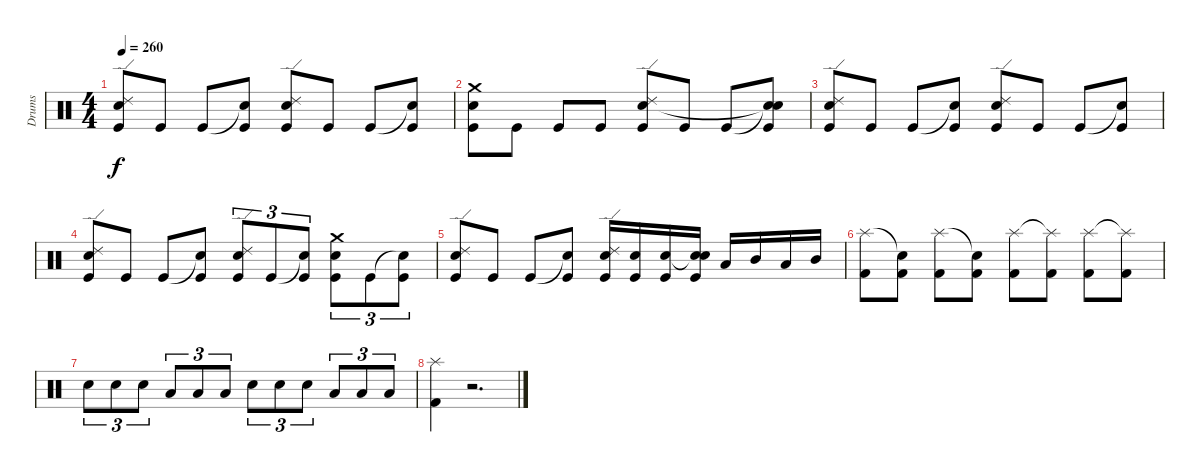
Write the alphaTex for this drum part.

\track ("Drums" "Drums") {instrument percussion}
\staff {score}
\articulation defaults
\ts (4 4)
\tempo 260
\clef neutral
\ks c
("Ride (edge) 2" "Electric Snare (hit)" "Kick (hit)").8{dy f} "Kick (hit)".8 "Kick (hit)".8 ("Snare (hit)"{t} "Kick (hit)").8 ("Ride (edge) 2" "Electric Snare (hit)" "Kick (hit)").8 "Kick (hit)".8 "Kick (hit)".8 ("Snare (hit)"{t} "Kick (hit)").8 |
("Crash medium (hit)" "Electric Snare (hit)" "Kick (hit)").8 "Kick (hit)".8 "Kick (hit)".8 "Kick (hit)".8 ("Ride (edge) 2" "Electric Snare (hit)" "Kick (hit)").8 "Kick (hit)".8 "Kick (hit)".8 ("Snare (hit)"{t} "Snare (hit)"{t} "Kick (hit)").8 |
("Ride (edge) 2" "Electric Snare (hit)" "Kick (hit)").8 "Kick (hit)".8 "Kick (hit)".8 ("Snare (hit)"{t} "Kick (hit)").8 ("Ride (edge) 2" "Electric Snare (hit)" "Kick (hit)").8 "Kick (hit)".8 "Kick (hit)".8 ("Snare (hit)"{t} "Kick (hit)").8 |
("Ride (edge) 2" "Electric Snare (hit)" "Kick (hit)").8 "Kick (hit)".8 "Kick (hit)".8 ("Snare (hit)"{t} "Kick (hit)").8 ("Ride (edge) 2" "Electric Snare (hit)" "Kick (hit)").8{tu (3 2)} "Kick (hit)".8{tu (3 2)} ("Snare (hit)"{t} "Kick (hit)").8{tu (3 2)} ("Crash medium (hit)" "Electric Snare (hit)" "Kick (hit)").8{tu (3 2)} "Kick (hit)".8{tu (3 2)} ("Snare (hit)"{t} "Kick (hit)").8{tu (3 2)} |
("Ride (edge) 2" "Electric Snare (hit)" "Kick (hit)").8 "Kick (hit)".8 "Kick (hit)".8 ("Snare (hit)"{t} "Kick (hit)").8 ("Ride (edge) 2" "Electric Snare (hit)" "Kick (hit)").16 ("Electric Snare (hit)" "Kick (hit)").16 ("Electric Snare (hit)" "Kick (hit)").16 ("Snare (hit)"{t} "Electric Snare (hit)" "Kick (hit)").16 "Low Tom (hit)".16 "Mid Tom (hit)".16 "Low Tom (hit)".16 "Mid Tom (hit)".16 |
("Splash (hit)" "Kick (hit) 2").8 ("Snare (hit)"{t} "Kick (hit) 2").8 ("Splash (hit)" "Kick (hit) 2").8 ("Snare (hit)"{t} "Kick (hit) 2").8 ("Splash (hit)" "Kick (hit) 2").8 ("Splash (hit)"{t} "Kick (hit) 2").8 ("Splash (hit)" "Kick (hit) 2").8 ("Splash (hit)"{t} "Kick (hit) 2").8 |
"Electric Snare (hit)".8{tu (3 2)} "Electric Snare (hit)".8{tu (3 2)} "Electric Snare (hit)".8{tu (3 2)} "Low Tom (hit)".8{tu (3 2)} "Low Tom (hit)".8{tu (3 2)} "Low Tom (hit)".8{tu (3 2)} "Electric Snare (hit)".8{tu (3 2)} "Electric Snare (hit)".8{tu (3 2)} "Electric Snare (hit)".8{tu (3 2)} "Low Tom (hit)".8{tu (3 2)} "Low Tom (hit)".8{tu (3 2)} "Low Tom (hit)".8{tu (3 2)} |
("Splash (hit)" "Kick (hit) 2").4 r.2{d}
